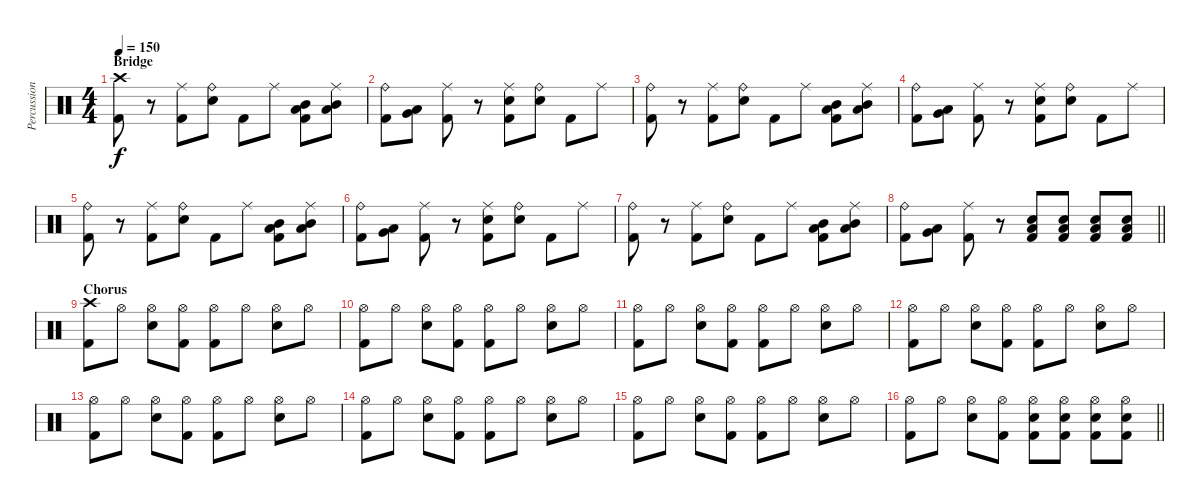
\track ("Percussion" "Percussion") {instrument percussion}
\staff {score}
\articulation defaults
\ts (4 4)
\section ("" "Bridge")
\tempo 150
\clef neutral
\ks c
("Crash high (hit)" "Kick (hit) 2").8{dy f} r.8 ("Ride (middle)" "Kick (hit) 2").8 ("Ride (bell)" "Electric Snare (hit)").8 "Kick (hit) 2".8 "Ride (middle)".8 ("Mid Tom (hit)" "Low Tom (hit)" "Kick (hit) 2").8 ("Ride (middle)" "Mid Tom (hit)" "Low Tom (hit)").8 |
("Ride (bell)" "Kick (hit) 2").8 ("Very Low Tom (hit)" "Low Floor Tom (hit)").8 ("Ride (middle)" "Kick (hit) 2").8 r.8 ("Ride (middle)" "Electric Snare (hit)" "Kick (hit) 2").8 ("Ride (bell)" "Electric Snare (hit)").8 "Kick (hit) 2".8 "Ride (middle)".8 |
("Ride (bell)" "Kick (hit) 2").8 r.8 ("Ride (middle)" "Kick (hit) 2").8 ("Ride (bell)" "Electric Snare (hit)").8 "Kick (hit) 2".8 "Ride (middle)".8 ("Mid Tom (hit)" "Low Tom (hit)" "Kick (hit) 2").8 ("Ride (middle)" "Mid Tom (hit)" "Low Tom (hit)").8 |
("Ride (bell)" "Kick (hit) 2").8 ("Very Low Tom (hit)" "Low Floor Tom (hit)").8 ("Ride (middle)" "Kick (hit) 2").8 r.8 ("Ride (middle)" "Electric Snare (hit)" "Kick (hit) 2").8 ("Ride (bell)" "Electric Snare (hit)").8 "Kick (hit) 2".8 "Ride (middle)".8 |
("Ride (bell)" "Kick (hit) 2").8 r.8 ("Ride (middle)" "Kick (hit) 2").8 ("Ride (bell)" "Electric Snare (hit)").8 "Kick (hit) 2".8 "Ride (middle)".8 ("Mid Tom (hit)" "Low Tom (hit)" "Kick (hit) 2").8 ("Ride (middle)" "Mid Tom (hit)" "Low Tom (hit)").8 |
("Ride (bell)" "Kick (hit) 2").8 ("Very Low Tom (hit)" "Low Floor Tom (hit)").8 ("Ride (middle)" "Kick (hit) 2").8 r.8 ("Ride (middle)" "Electric Snare (hit)" "Kick (hit) 2").8 ("Ride (bell)" "Electric Snare (hit)").8 "Kick (hit) 2".8 "Ride (middle)".8 |
("Ride (bell)" "Kick (hit) 2").8 r.8 ("Ride (middle)" "Kick (hit) 2").8 ("Ride (bell)" "Electric Snare (hit)").8 "Kick (hit) 2".8 "Ride (middle)".8 ("Mid Tom (hit)" "Low Tom (hit)" "Kick (hit) 2").8 ("Ride (middle)" "Mid Tom (hit)" "Low Tom (hit)").8 |
\barLineRight lightlight
("Ride (bell)" "Kick (hit) 2").8 ("Very Low Tom (hit)" "Low Floor Tom (hit)").8 ("Ride (middle)" "Kick (hit) 2").8 r.8 ("Electric Snare (hit)" "Low Floor Tom (hit)" "Kick (hit) 2").8 ("Electric Snare (hit)" "Low Floor Tom (hit)" "Kick (hit) 2").8 ("Electric Snare (hit)" "Low Floor Tom (hit)" "Kick (hit) 2").8 ("Electric Snare (hit)" "Low Floor Tom (hit)" "Kick (hit) 2").8 |
\section ("" "Chorus")
("Crash high (hit)" "Kick (hit) 2").8 "Hi-Hat (open)".8 ("Hi-Hat (open)" "Electric Snare (hit)").8 ("Hi-Hat (open)" "Kick (hit) 2").8 ("Hi-Hat (open)" "Kick (hit) 2").8 "Hi-Hat (open)".8 ("Hi-Hat (open)" "Electric Snare (hit)").8 "Hi-Hat (open)".8 |
("Hi-Hat (open)" "Kick (hit) 2").8 "Hi-Hat (open)".8 ("Hi-Hat (open)" "Electric Snare (hit)").8 ("Hi-Hat (open)" "Kick (hit) 2").8 ("Hi-Hat (open)" "Kick (hit) 2").8 "Hi-Hat (open)".8 ("Hi-Hat (open)" "Electric Snare (hit)").8 "Hi-Hat (open)".8 |
("Hi-Hat (open)" "Kick (hit) 2").8 "Hi-Hat (open)".8 ("Hi-Hat (open)" "Electric Snare (hit)").8 ("Hi-Hat (open)" "Kick (hit) 2").8 ("Hi-Hat (open)" "Kick (hit) 2").8 "Hi-Hat (open)".8 ("Hi-Hat (open)" "Electric Snare (hit)").8 "Hi-Hat (open)".8 |
("Hi-Hat (open)" "Kick (hit) 2").8 "Hi-Hat (open)".8 ("Hi-Hat (open)" "Electric Snare (hit)").8 ("Hi-Hat (open)" "Kick (hit) 2").8 ("Hi-Hat (open)" "Kick (hit) 2").8 "Hi-Hat (open)".8 ("Hi-Hat (open)" "Electric Snare (hit)").8 "Hi-Hat (open)".8 |
("Hi-Hat (open)" "Kick (hit) 2").8 "Hi-Hat (open)".8 ("Hi-Hat (open)" "Electric Snare (hit)").8 ("Hi-Hat (open)" "Kick (hit) 2").8 ("Hi-Hat (open)" "Kick (hit) 2").8 "Hi-Hat (open)".8 ("Hi-Hat (open)" "Electric Snare (hit)").8 "Hi-Hat (open)".8 |
("Hi-Hat (open)" "Kick (hit) 2").8 "Hi-Hat (open)".8 ("Hi-Hat (open)" "Electric Snare (hit)").8 ("Hi-Hat (open)" "Kick (hit) 2").8 ("Hi-Hat (open)" "Kick (hit) 2").8 "Hi-Hat (open)".8 ("Hi-Hat (open)" "Electric Snare (hit)").8 "Hi-Hat (open)".8 |
("Hi-Hat (open)" "Kick (hit) 2").8 "Hi-Hat (open)".8 ("Hi-Hat (open)" "Electric Snare (hit)").8 ("Hi-Hat (open)" "Kick (hit) 2").8 ("Hi-Hat (open)" "Kick (hit) 2").8 "Hi-Hat (open)".8 ("Hi-Hat (open)" "Electric Snare (hit)").8 "Hi-Hat (open)".8 |
\barLineRight lightlight
("Hi-Hat (open)" "Kick (hit) 2").8 "Hi-Hat (open)".8 ("Hi-Hat (open)" "Electric Snare (hit)").8 ("Hi-Hat (open)" "Kick (hit) 2").8 ("Hi-Hat (open)" "Electric Snare (hit)" "Kick (hit) 2").8 ("Hi-Hat (open)" "Electric Snare (hit)" "Kick (hit) 2").8 ("Hi-Hat (open)" "Electric Snare (hit)" "Kick (hit) 2").8 ("Hi-Hat (open)" "Electric Snare (hit)" "Kick (hit) 2").8
